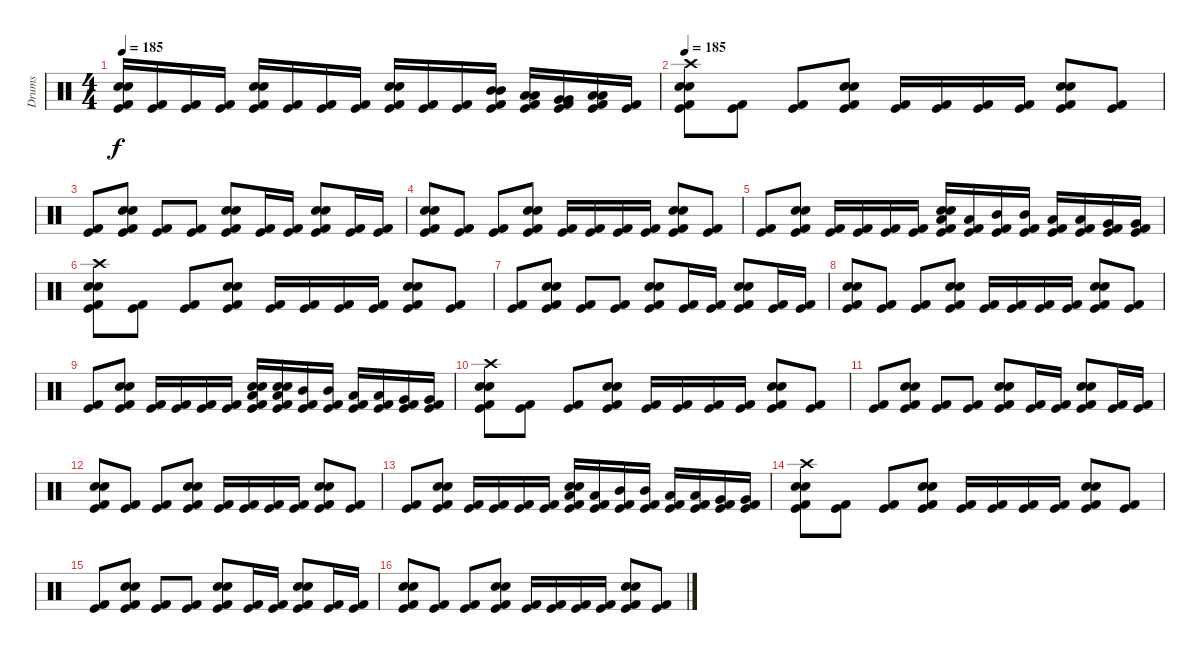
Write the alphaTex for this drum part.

\track ("Drums" "Drums") {instrument percussion}
\staff {score}
\articulation defaults
\ts (4 4)
\tempo 185
\clef neutral
\ks c
("Electric Snare (hit)" "Snare (hit) 2" "Kick (hit) 2" "Kick (hit)").16{dy f} ("Kick (hit) 2" "Kick (hit)").16 ("Kick (hit) 2" "Kick (hit)").16 ("Kick (hit) 2" "Kick (hit)").16 ("Electric Snare (hit)" "Snare (hit) 2" "Kick (hit) 2" "Kick (hit)").16 ("Kick (hit) 2" "Kick (hit)").16 ("Kick (hit) 2" "Kick (hit)").16 ("Kick (hit) 2" "Kick (hit)").16 ("Electric Snare (hit)" "Snare (hit) 2" "Kick (hit) 2" "Kick (hit)").16 ("Kick (hit) 2" "Kick (hit)").16 ("Kick (hit) 2" "Kick (hit)").16 ("Mid Tom (hit)" "Mid Tom (hit)" "Kick (hit) 2" "Kick (hit)").16 ("Low Tom (hit)" "Low Tom (hit)" "Kick (hit) 2" "Kick (hit)").16 ("Very Low Tom (hit)" "Very Low Tom (hit)" "Kick (hit) 2" "Kick (hit)").16 ("Low Floor Tom (hit)" "Low Floor Tom (hit)" "Kick (hit) 2" "Kick (hit)").16 ("Kick (hit) 2" "Kick (hit)").16 |
\tempo 185
("Crash high (hit)" "Electric Snare (hit)" "Snare (hit) 2" "Kick (hit) 2" "Kick (hit)").8 ("Kick (hit) 2" "Kick (hit)").8 ("Kick (hit) 2" "Kick (hit)").8 ("Electric Snare (hit)" "Snare (hit) 2" "Kick (hit) 2" "Kick (hit)").8 ("Kick (hit) 2" "Kick (hit)").16 ("Kick (hit) 2" "Kick (hit)").16 ("Kick (hit) 2" "Kick (hit)").16 ("Kick (hit) 2" "Kick (hit)").16 ("Electric Snare (hit)" "Snare (hit) 2" "Kick (hit) 2" "Kick (hit)").8 ("Kick (hit) 2" "Kick (hit)").8 |
("Kick (hit) 2" "Kick (hit)").8 ("Electric Snare (hit)" "Snare (hit) 2" "Kick (hit) 2" "Kick (hit)").8 ("Kick (hit) 2" "Kick (hit)").8 ("Kick (hit) 2" "Kick (hit)").8 ("Electric Snare (hit)" "Snare (hit) 2" "Kick (hit) 2" "Kick (hit)").8 ("Kick (hit) 2" "Kick (hit)").16 ("Kick (hit) 2" "Kick (hit)").16 ("Electric Snare (hit)" "Snare (hit) 2" "Kick (hit) 2" "Kick (hit)").8 ("Kick (hit) 2" "Kick (hit)").16 ("Kick (hit) 2" "Kick (hit)").16 |
("Electric Snare (hit)" "Snare (hit) 2" "Kick (hit) 2" "Kick (hit)").8 ("Kick (hit) 2" "Kick (hit)").8 ("Kick (hit) 2" "Kick (hit)").8 ("Electric Snare (hit)" "Snare (hit) 2" "Kick (hit) 2" "Kick (hit)").8 ("Kick (hit) 2" "Kick (hit)").16 ("Kick (hit) 2" "Kick (hit)").16 ("Kick (hit) 2" "Kick (hit)").16 ("Kick (hit) 2" "Kick (hit)").16 ("Electric Snare (hit)" "Snare (hit) 2" "Kick (hit) 2" "Kick (hit)").8 ("Kick (hit) 2" "Kick (hit)").8 |
("Kick (hit) 2" "Kick (hit)").8 ("Electric Snare (hit)" "Snare (hit) 2" "Kick (hit) 2" "Kick (hit)").8 ("Kick (hit) 2" "Kick (hit)").16 ("Kick (hit) 2" "Kick (hit)").16 ("Kick (hit) 2" "Kick (hit)").16 ("Kick (hit) 2" "Kick (hit)").16 ("Electric Snare (hit)" "Snare (hit) 2" "Low Tom (hit)" "Kick (hit) 2" "Kick (hit)").16 ("Low Tom (hit)" "Kick (hit) 2" "Kick (hit)").16 ("Mid Tom (hit)" "Kick (hit) 2" "Kick (hit)").16 ("Mid Tom (hit)" "Kick (hit) 2" "Kick (hit)").16 ("Low Tom (hit)" "Kick (hit) 2" "Kick (hit)").16 ("Low Tom (hit)" "Kick (hit) 2" "Kick (hit)").16 ("Very Low Tom (hit)" "Kick (hit) 2" "Kick (hit)").16 ("Very Low Tom (hit)" "Kick (hit) 2" "Kick (hit)").16 |
("Crash high (hit)" "Electric Snare (hit)" "Snare (hit) 2" "Kick (hit) 2" "Kick (hit)").8 ("Kick (hit) 2" "Kick (hit)").8 ("Kick (hit) 2" "Kick (hit)").8 ("Electric Snare (hit)" "Snare (hit) 2" "Kick (hit) 2" "Kick (hit)").8 ("Kick (hit) 2" "Kick (hit)").16 ("Kick (hit) 2" "Kick (hit)").16 ("Kick (hit) 2" "Kick (hit)").16 ("Kick (hit) 2" "Kick (hit)").16 ("Electric Snare (hit)" "Snare (hit) 2" "Kick (hit) 2" "Kick (hit)").8 ("Kick (hit) 2" "Kick (hit)").8 |
("Kick (hit) 2" "Kick (hit)").8 ("Electric Snare (hit)" "Snare (hit) 2" "Kick (hit) 2" "Kick (hit)").8 ("Kick (hit) 2" "Kick (hit)").8 ("Kick (hit) 2" "Kick (hit)").8 ("Electric Snare (hit)" "Snare (hit) 2" "Kick (hit) 2" "Kick (hit)").8 ("Kick (hit) 2" "Kick (hit)").16 ("Kick (hit) 2" "Kick (hit)").16 ("Electric Snare (hit)" "Snare (hit) 2" "Kick (hit) 2" "Kick (hit)").8 ("Kick (hit) 2" "Kick (hit)").16 ("Kick (hit) 2" "Kick (hit)").16 |
("Electric Snare (hit)" "Snare (hit) 2" "Kick (hit) 2" "Kick (hit)").8 ("Kick (hit) 2" "Kick (hit)").8 ("Kick (hit) 2" "Kick (hit)").8 ("Electric Snare (hit)" "Snare (hit) 2" "Kick (hit) 2" "Kick (hit)").8 ("Kick (hit) 2" "Kick (hit)").16 ("Kick (hit) 2" "Kick (hit)").16 ("Kick (hit) 2" "Kick (hit)").16 ("Kick (hit) 2" "Kick (hit)").16 ("Electric Snare (hit)" "Snare (hit) 2" "Kick (hit) 2" "Kick (hit)").8 ("Kick (hit) 2" "Kick (hit)").8 |
("Kick (hit) 2" "Kick (hit)").8 ("Electric Snare (hit)" "Snare (hit) 2" "Kick (hit) 2" "Kick (hit)").8 ("Kick (hit) 2" "Kick (hit)").16 ("Kick (hit) 2" "Kick (hit)").16 ("Kick (hit) 2" "Kick (hit)").16 ("Kick (hit) 2" "Kick (hit)").16 ("Electric Snare (hit)" "Snare (hit) 2" "Low Tom (hit)" "Kick (hit) 2" "Kick (hit)").16 ("Electric Snare (hit)" "Snare (hit) 2" "Low Tom (hit)" "Kick (hit) 2" "Kick (hit)").16 ("Mid Tom (hit)" "Kick (hit) 2" "Kick (hit)").16 ("Mid Tom (hit)" "Kick (hit) 2" "Kick (hit)").16 ("Low Tom (hit)" "Kick (hit) 2" "Kick (hit)").16 ("Low Tom (hit)" "Kick (hit) 2" "Kick (hit)").16 ("Very Low Tom (hit)" "Kick (hit) 2" "Kick (hit)").16 ("Very Low Tom (hit)" "Kick (hit) 2" "Kick (hit)").16 |
("Crash high (hit)" "Electric Snare (hit)" "Snare (hit) 2" "Kick (hit) 2" "Kick (hit)").8 ("Kick (hit) 2" "Kick (hit)").8 ("Kick (hit) 2" "Kick (hit)").8 ("Electric Snare (hit)" "Snare (hit) 2" "Kick (hit) 2" "Kick (hit)").8 ("Kick (hit) 2" "Kick (hit)").16 ("Kick (hit) 2" "Kick (hit)").16 ("Kick (hit) 2" "Kick (hit)").16 ("Kick (hit) 2" "Kick (hit)").16 ("Electric Snare (hit)" "Snare (hit) 2" "Kick (hit) 2" "Kick (hit)").8 ("Kick (hit) 2" "Kick (hit)").8 |
("Kick (hit) 2" "Kick (hit)").8 ("Electric Snare (hit)" "Snare (hit) 2" "Kick (hit) 2" "Kick (hit)").8 ("Kick (hit) 2" "Kick (hit)").8 ("Kick (hit) 2" "Kick (hit)").8 ("Electric Snare (hit)" "Snare (hit) 2" "Kick (hit) 2" "Kick (hit)").8 ("Kick (hit) 2" "Kick (hit)").16 ("Kick (hit) 2" "Kick (hit)").16 ("Electric Snare (hit)" "Snare (hit) 2" "Kick (hit) 2" "Kick (hit)").8 ("Kick (hit) 2" "Kick (hit)").16 ("Kick (hit) 2" "Kick (hit)").16 |
("Electric Snare (hit)" "Snare (hit) 2" "Kick (hit) 2" "Kick (hit)").8 ("Kick (hit) 2" "Kick (hit)").8 ("Kick (hit) 2" "Kick (hit)").8 ("Electric Snare (hit)" "Snare (hit) 2" "Kick (hit) 2" "Kick (hit)").8 ("Kick (hit) 2" "Kick (hit)").16 ("Kick (hit) 2" "Kick (hit)").16 ("Kick (hit) 2" "Kick (hit)").16 ("Kick (hit) 2" "Kick (hit)").16 ("Electric Snare (hit)" "Snare (hit) 2" "Kick (hit) 2" "Kick (hit)").8 ("Kick (hit) 2" "Kick (hit)").8 |
("Kick (hit) 2" "Kick (hit)").8 ("Electric Snare (hit)" "Snare (hit) 2" "Kick (hit) 2" "Kick (hit)").8 ("Kick (hit) 2" "Kick (hit)").16 ("Kick (hit) 2" "Kick (hit)").16 ("Kick (hit) 2" "Kick (hit)").16 ("Kick (hit) 2" "Kick (hit)").16 ("Electric Snare (hit)" "Snare (hit) 2" "Low Tom (hit)" "Kick (hit) 2" "Kick (hit)").16 ("Low Tom (hit)" "Kick (hit) 2" "Kick (hit)").16 ("Mid Tom (hit)" "Kick (hit) 2" "Kick (hit)").16 ("Mid Tom (hit)" "Kick (hit) 2" "Kick (hit)").16 ("Low Tom (hit)" "Kick (hit) 2" "Kick (hit)").16 ("Low Tom (hit)" "Kick (hit) 2" "Kick (hit)").16 ("Very Low Tom (hit)" "Kick (hit) 2" "Kick (hit)").16 ("Very Low Tom (hit)" "Kick (hit) 2" "Kick (hit)").16 |
("Crash high (hit)" "Electric Snare (hit)" "Snare (hit) 2" "Kick (hit) 2" "Kick (hit)").8 ("Kick (hit) 2" "Kick (hit)").8 ("Kick (hit) 2" "Kick (hit)").8 ("Electric Snare (hit)" "Snare (hit) 2" "Kick (hit) 2" "Kick (hit)").8 ("Kick (hit) 2" "Kick (hit)").16 ("Kick (hit) 2" "Kick (hit)").16 ("Kick (hit) 2" "Kick (hit)").16 ("Kick (hit) 2" "Kick (hit)").16 ("Electric Snare (hit)" "Snare (hit) 2" "Kick (hit) 2" "Kick (hit)").8 ("Kick (hit) 2" "Kick (hit)").8 |
("Kick (hit) 2" "Kick (hit)").8 ("Electric Snare (hit)" "Snare (hit) 2" "Kick (hit) 2" "Kick (hit)").8 ("Kick (hit) 2" "Kick (hit)").8 ("Kick (hit) 2" "Kick (hit)").8 ("Electric Snare (hit)" "Snare (hit) 2" "Kick (hit) 2" "Kick (hit)").8 ("Kick (hit) 2" "Kick (hit)").16 ("Kick (hit) 2" "Kick (hit)").16 ("Electric Snare (hit)" "Snare (hit) 2" "Kick (hit) 2" "Kick (hit)").8 ("Kick (hit) 2" "Kick (hit)").16 ("Kick (hit) 2" "Kick (hit)").16 |
("Electric Snare (hit)" "Snare (hit) 2" "Kick (hit) 2" "Kick (hit)").8 ("Kick (hit) 2" "Kick (hit)").8 ("Kick (hit) 2" "Kick (hit)").8 ("Electric Snare (hit)" "Snare (hit) 2" "Kick (hit) 2" "Kick (hit)").8 ("Kick (hit) 2" "Kick (hit)").16 ("Kick (hit) 2" "Kick (hit)").16 ("Kick (hit) 2" "Kick (hit)").16 ("Kick (hit) 2" "Kick (hit)").16 ("Electric Snare (hit)" "Snare (hit) 2" "Kick (hit) 2" "Kick (hit)").8 ("Kick (hit) 2" "Kick (hit)").8
